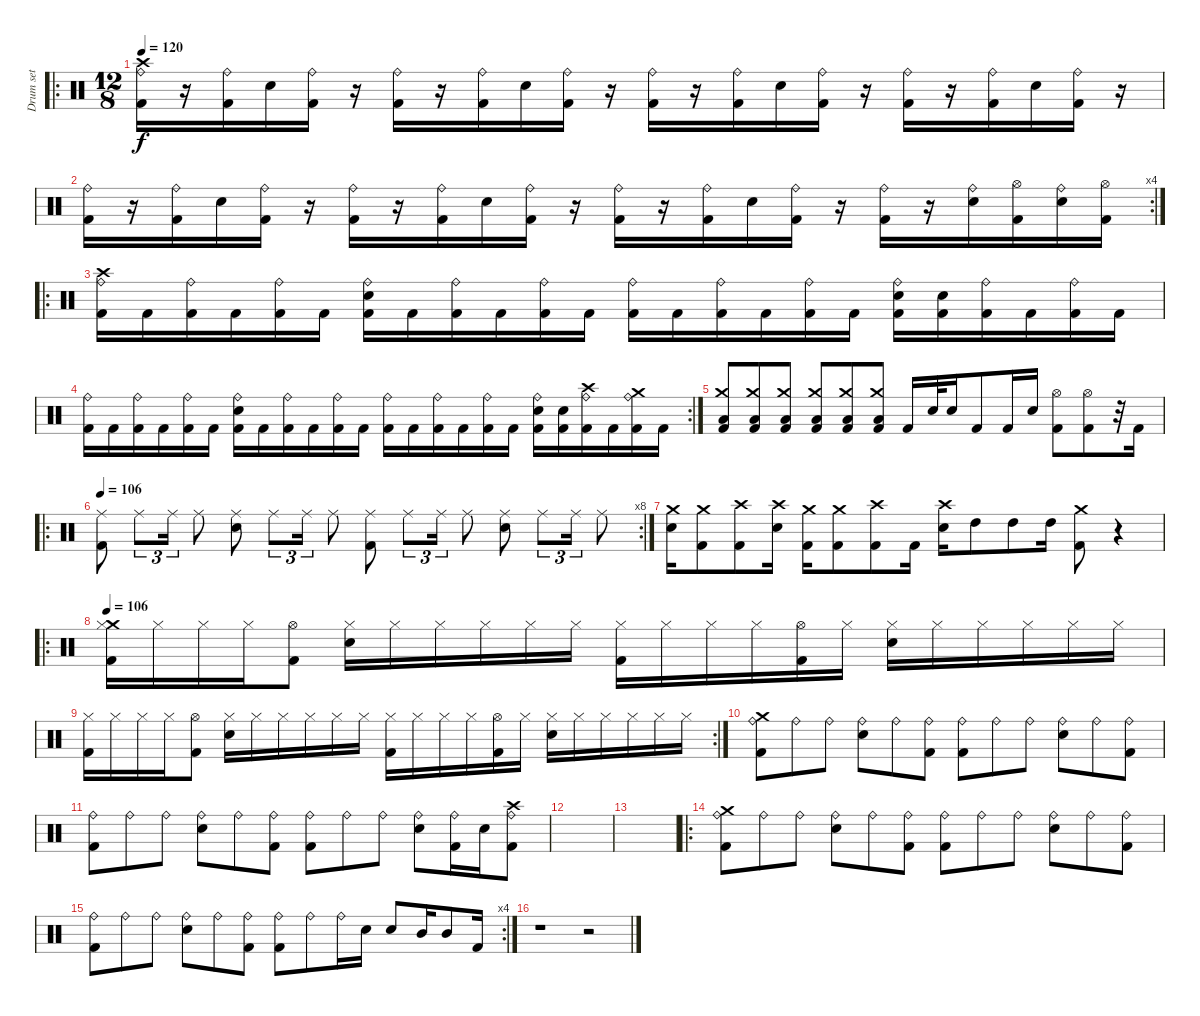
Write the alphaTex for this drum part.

\track ("Drum set" "Drum set") {instrument percussion}
\staff {score}
\articulation defaults
\ro
\ts (12 8)
\tempo 120
\clef neutral
\ks c
("Crash high (hit)" "Ride (bell)" "Kick (hit) 2").16{dy f} r.16 ("Ride (bell)" "Kick (hit) 2").16 "Snare (hit) 2".16 ("Ride (bell)" "Kick (hit) 2").16 r.16 ("Ride (bell)" "Kick (hit) 2").16 r.16 ("Ride (bell)" "Kick (hit) 2").16 "Snare (hit) 2".16 ("Ride (bell)" "Kick (hit) 2").16 r.16 ("Ride (bell)" "Kick (hit) 2").16 r.16 ("Ride (bell)" "Kick (hit) 2").16 "Snare (hit) 2".16 ("Ride (bell)" "Kick (hit) 2").16 r.16 ("Ride (bell)" "Kick (hit) 2").16 r.16 ("Ride (bell)" "Kick (hit) 2").16 "Snare (hit) 2".16 ("Ride (bell)" "Kick (hit) 2").16 r.16 |
\rc 4
("Ride (bell)" "Kick (hit) 2").16 r.16 ("Ride (bell)" "Kick (hit) 2").16 "Snare (hit) 2".16 ("Ride (bell)" "Kick (hit) 2").16 r.16 ("Ride (bell)" "Kick (hit) 2").16 r.16 ("Ride (bell)" "Kick (hit) 2").16 "Snare (hit) 2".16 ("Ride (bell)" "Kick (hit) 2").16 r.16 ("Ride (bell)" "Kick (hit) 2").16 r.16 ("Ride (bell)" "Kick (hit) 2").16 "Snare (hit) 2".16 ("Ride (bell)" "Kick (hit) 2").16 r.16 ("Ride (bell)" "Kick (hit) 2").16 r.16 ("Ride (bell)" "Snare (hit) 2").16 ("Hi-Hat (open)" "Kick (hit) 2").16 ("Ride (bell)" "Snare (hit) 2").16 ("Hi-Hat (open)" "Kick (hit) 2").16 |
\ro
("Crash high (hit)" "Ride (bell)" "Kick (hit) 2").16 "Kick (hit) 2".16 ("Ride (bell)" "Kick (hit) 2").16 "Kick (hit) 2".16 ("Ride (bell)" "Kick (hit) 2").16 "Kick (hit) 2".16 ("Ride (bell)" "Snare (hit) 2" "Kick (hit) 2").16 "Kick (hit) 2".16 ("Ride (bell)" "Kick (hit) 2").16 "Kick (hit) 2".16 ("Ride (bell)" "Kick (hit) 2").16 "Kick (hit) 2".16 ("Ride (bell)" "Kick (hit) 2").16 "Kick (hit) 2".16 ("Ride (bell)" "Kick (hit) 2").16 "Kick (hit) 2".16 ("Ride (bell)" "Kick (hit) 2").16 "Kick (hit) 2".16 ("Ride (bell)" "Snare (hit) 2" "Kick (hit) 2").16 ("Snare (hit) 2" "Kick (hit) 2").16 ("Ride (bell)" "Kick (hit) 2").16 "Kick (hit) 2".16 ("Ride (bell)" "Kick (hit) 2").16 "Kick (hit) 2".16 |
\rc 2
("Ride (bell)" "Kick (hit) 2").16 "Kick (hit) 2".16 ("Ride (bell)" "Kick (hit) 2").16 "Kick (hit) 2".16 ("Ride (bell)" "Kick (hit) 2").16 "Kick (hit) 2".16 ("Ride (bell)" "Snare (hit) 2" "Kick (hit) 2").16 "Kick (hit) 2".16 ("Ride (bell)" "Kick (hit) 2").16 "Kick (hit) 2".16 ("Ride (bell)" "Kick (hit) 2").16 "Kick (hit) 2".16 ("Ride (bell)" "Kick (hit) 2").16 "Kick (hit) 2".16 ("Ride (bell)" "Kick (hit) 2").16 "Kick (hit) 2".16 ("Ride (bell)" "Kick (hit) 2").16 "Kick (hit) 2".16 ("Ride (bell)" "Snare (hit) 2" "Kick (hit) 2").16 ("Snare (hit) 2" "Kick (hit) 2").16 ("Crash high (hit)" "Ride (bell)" "Kick (hit) 2").16 "Kick (hit) 2".16 ("Crash medium (hit)" "Ride (bell)" "Kick (hit) 2").16 "Kick (hit) 2".16 |
("Crash medium (hit)" "Low Floor Tom (hit)" "Kick (hit) 2").8 ("Crash medium (hit)" "Low Floor Tom (hit)" "Kick (hit) 2").8 ("Crash medium (hit)" "Low Floor Tom (hit)" "Kick (hit) 2").8 ("Crash medium (hit)" "Low Floor Tom (hit)" "Kick (hit) 2").8 ("Crash medium (hit)" "Low Floor Tom (hit)" "Kick (hit) 2").8 ("Crash medium (hit)" "Low Floor Tom (hit)" "Kick (hit) 2").8 "Kick (hit) 2".16 "Snare (hit) 2".32 "Snare (hit) 2".16 "Kick (hit) 2".8 "Kick (hit) 2".16 "Snare (hit) 2".16 ("Hi-Hat (open)" "Kick (hit) 2").8 ("Hi-Hat (open)" "Kick (hit) 2").8 r.32 "Kick (hit) 2".16 |
\ro
\rc 8
\tempo 106
("Ride (middle)" "Kick (hit) 2").8 "Ride (middle)".8{tu (3 2)} "Ride (middle)".16{tu (3 2)} "Ride (middle)".8 ("Ride (middle)" "Snare (hit) 2").8 "Ride (middle)".8{tu (3 2)} "Ride (middle)".16{tu (3 2)} "Ride (middle)".8 ("Ride (middle)" "Kick (hit) 2").8 "Ride (middle)".8{tu (3 2)} "Ride (middle)".16{tu (3 2)} "Ride (middle)".8 ("Ride (middle)" "Snare (hit) 2").8 "Ride (middle)".8{tu (3 2)} "Ride (middle)".16{tu (3 2)} "Ride (middle)".8 |
("Crash medium (hit)" "Snare (hit) 2").16 ("Crash medium (hit)" "Kick (hit) 2").8 ("Crash high (hit)" "Kick (hit) 2").8 ("Crash high (hit)" "Snare (hit) 2").16 ("Crash medium (hit)" "Kick (hit) 2").16 ("Crash medium (hit)" "Kick (hit) 2").8 ("Crash high (hit)" "Kick (hit) 2").8 "Kick (hit) 2".16 ("Crash high (hit)" "Snare (hit) 2").16 "High Tom (hit)".8 "High Tom (hit)".8 "High Tom (hit)".16 ("Crash medium (hit)" "Kick (hit) 2").8 r.4 |
\ro
\tempo 106
("Crash medium (hit)" "Hi-Hat (closed)" "Kick (hit) 2").16 "Hi-Hat (closed)".16 "Hi-Hat (closed)".16 "Hi-Hat (closed)".16 ("Hi-Hat (open)" "Kick (hit) 2").8 ("Hi-Hat (closed)" "Snare (hit) 2").16 "Hi-Hat (closed)".16 "Hi-Hat (closed)".16 "Hi-Hat (closed)".16 "Hi-Hat (closed)".16 "Hi-Hat (closed)".16 ("Hi-Hat (closed)" "Kick (hit) 2").16 "Hi-Hat (closed)".16 "Hi-Hat (closed)".16 "Hi-Hat (closed)".16 ("Hi-Hat (open)" "Kick (hit) 2").16 "Hi-Hat (closed)".16 ("Hi-Hat (closed)" "Snare (hit) 2").16 "Hi-Hat (closed)".16 "Hi-Hat (closed)".16 "Hi-Hat (closed)".16 "Hi-Hat (closed)".16 "Hi-Hat (closed)".16 |
\rc 2
("Hi-Hat (closed)" "Kick (hit) 2").16 "Hi-Hat (closed)".16 "Hi-Hat (closed)".16 "Hi-Hat (closed)".16 ("Hi-Hat (open)" "Kick (hit) 2").8 ("Hi-Hat (closed)" "Snare (hit) 2").16 "Hi-Hat (closed)".16 "Hi-Hat (closed)".16 "Hi-Hat (closed)".16 "Hi-Hat (closed)".16 "Hi-Hat (closed)".16 ("Hi-Hat (closed)" "Kick (hit) 2").16 "Hi-Hat (closed)".16 "Hi-Hat (closed)".16 "Hi-Hat (closed)".16 ("Hi-Hat (open)" "Kick (hit) 2").16 "Hi-Hat (closed)".16 ("Hi-Hat (closed)" "Snare (hit) 2").16 "Hi-Hat (closed)".16 "Hi-Hat (closed)".16 "Hi-Hat (closed)".16 "Hi-Hat (closed)".16 "Hi-Hat (closed)".16 |
("Crash medium (hit)" "Ride (bell)" "Kick (hit) 2").8 "Ride (bell)".8 "Ride (bell)".8 ("Ride (bell)" "Snare (hit) 2").8 "Ride (bell)".8 ("Ride (bell)" "Kick (hit) 2").8 ("Ride (bell)" "Kick (hit) 2").8 "Ride (bell)".8 "Ride (bell)".8 ("Ride (bell)" "Snare (hit) 2").8 "Ride (bell)".8 ("Ride (bell)" "Kick (hit) 2").8 |
("Ride (bell)" "Kick (hit) 2").8 "Ride (bell)".8 "Ride (bell)".8 ("Ride (bell)" "Snare (hit) 2").8 "Ride (bell)".8 ("Ride (bell)" "Kick (hit) 2").8 ("Ride (bell)" "Kick (hit) 2").8 "Ride (bell)".8 "Ride (bell)".8 ("Ride (bell)" "Snare (hit) 2").8 ("Ride (bell)" "Kick (hit) 2").16 "Snare (hit) 2".16 ("Crash high (hit)" "Ride (bell)" "Kick (hit) 2").8 |
|
|
\ro
("Crash medium (hit)" "Ride (bell)" "Kick (hit) 2").8 "Ride (bell)".8 "Ride (bell)".8 ("Ride (bell)" "Snare (hit) 2").8 "Ride (bell)".8 ("Ride (bell)" "Kick (hit) 2").8 ("Ride (bell)" "Kick (hit) 2").8 "Ride (bell)".8 "Ride (bell)".8 ("Ride (bell)" "Snare (hit) 2").8 "Ride (bell)".8 ("Ride (bell)" "Kick (hit) 2").8 |
\rc 4
("Ride (bell)" "Kick (hit) 2").8 "Ride (bell)".8 "Ride (bell)".8 ("Ride (bell)" "Snare (hit) 2").8 "Ride (bell)".8 ("Ride (bell)" "Kick (hit) 2").8 ("Ride (bell)" "Kick (hit) 2").8 "Ride (bell)".8 "Ride (bell)".16 "Snare (hit) 2".16 "Snare (hit) 2".8 "Mid Tom (hit)".16 "Mid Tom (hit)".8 "Kick (hit) 2".16 |
r.1 r.2
